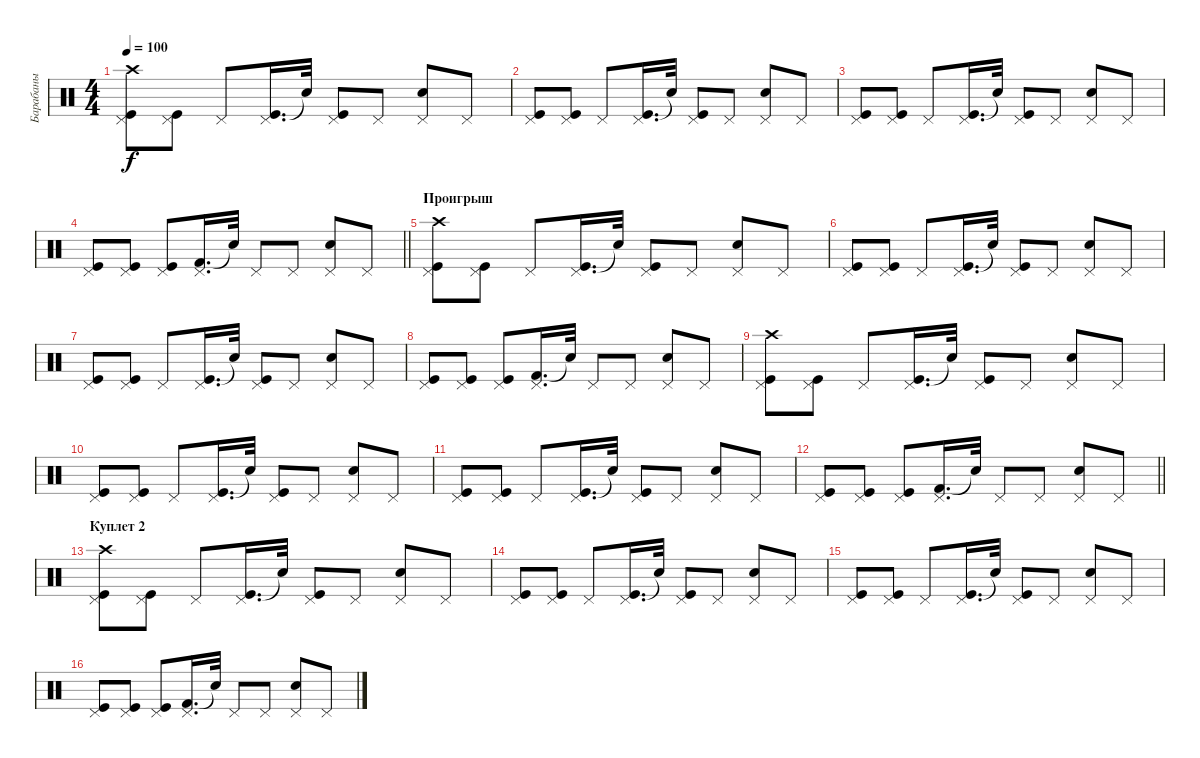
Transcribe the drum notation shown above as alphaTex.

\track ("Барабаны" "Барабаны") {instrument percussion}
\staff {score}
\articulation defaults
\ts (4 4)
\tempo 100
\clef neutral
\ks c
("Crash high (hit)" "Kick (hit)" "Pedal Hi-Hat (hit)").8{dy f} ("Kick (hit)" "Pedal Hi-Hat (hit)").8 "Pedal Hi-Hat (hit)".8 ("Kick (hit)" "Pedal Hi-Hat (hit)").16{d} "Snare (hit)"{t}.32 ("Kick (hit)" "Pedal Hi-Hat (hit)").8 "Pedal Hi-Hat (hit)".8 ("Snare (hit) 2" "Pedal Hi-Hat (hit)").8 "Pedal Hi-Hat (hit)".8 |
("Kick (hit)" "Pedal Hi-Hat (hit)").8 ("Kick (hit)" "Pedal Hi-Hat (hit)").8 "Pedal Hi-Hat (hit)".8 ("Kick (hit)" "Pedal Hi-Hat (hit)").16{d} "Snare (hit)"{t}.32 ("Kick (hit)" "Pedal Hi-Hat (hit)").8 "Pedal Hi-Hat (hit)".8 ("Snare (hit) 2" "Pedal Hi-Hat (hit)").8 "Pedal Hi-Hat (hit)".8 |
("Kick (hit)" "Pedal Hi-Hat (hit)").8 ("Kick (hit)" "Pedal Hi-Hat (hit)").8 "Pedal Hi-Hat (hit)".8 ("Kick (hit)" "Pedal Hi-Hat (hit)").16{d} "Snare (hit)"{t}.32 ("Kick (hit)" "Pedal Hi-Hat (hit)").8 "Pedal Hi-Hat (hit)".8 ("Snare (hit) 2" "Pedal Hi-Hat (hit)").8 "Pedal Hi-Hat (hit)".8 |
\barLineRight lightlight
("Kick (hit)" "Pedal Hi-Hat (hit)").8 ("Kick (hit)" "Pedal Hi-Hat (hit)").8 ("Kick (hit)" "Pedal Hi-Hat (hit)").8 ("Kick (hit) 2" "Pedal Hi-Hat (hit)").16{d} "Snare (hit)"{t}.32 "Pedal Hi-Hat (hit)".8 "Pedal Hi-Hat (hit)".8 ("Snare (hit) 2" "Pedal Hi-Hat (hit)").8 "Pedal Hi-Hat (hit)".8 |
\section ("" "Проигрыш")
("Crash high (hit)" "Kick (hit)" "Pedal Hi-Hat (hit)").8 ("Kick (hit)" "Pedal Hi-Hat (hit)").8 "Pedal Hi-Hat (hit)".8 ("Kick (hit)" "Pedal Hi-Hat (hit)").16{d} "Snare (hit)"{t}.32 ("Kick (hit)" "Pedal Hi-Hat (hit)").8 "Pedal Hi-Hat (hit)".8 ("Snare (hit) 2" "Pedal Hi-Hat (hit)").8 "Pedal Hi-Hat (hit)".8 |
("Kick (hit)" "Pedal Hi-Hat (hit)").8 ("Kick (hit)" "Pedal Hi-Hat (hit)").8 "Pedal Hi-Hat (hit)".8 ("Kick (hit)" "Pedal Hi-Hat (hit)").16{d} "Snare (hit)"{t}.32 ("Kick (hit)" "Pedal Hi-Hat (hit)").8 "Pedal Hi-Hat (hit)".8 ("Snare (hit) 2" "Pedal Hi-Hat (hit)").8 "Pedal Hi-Hat (hit)".8 |
("Kick (hit)" "Pedal Hi-Hat (hit)").8 ("Kick (hit)" "Pedal Hi-Hat (hit)").8 "Pedal Hi-Hat (hit)".8 ("Kick (hit)" "Pedal Hi-Hat (hit)").16{d} "Snare (hit)"{t}.32 ("Kick (hit)" "Pedal Hi-Hat (hit)").8 "Pedal Hi-Hat (hit)".8 ("Snare (hit) 2" "Pedal Hi-Hat (hit)").8 "Pedal Hi-Hat (hit)".8 |
("Kick (hit)" "Pedal Hi-Hat (hit)").8 ("Kick (hit)" "Pedal Hi-Hat (hit)").8 ("Kick (hit)" "Pedal Hi-Hat (hit)").8 ("Kick (hit) 2" "Pedal Hi-Hat (hit)").16{d} "Snare (hit)"{t}.32 "Pedal Hi-Hat (hit)".8 "Pedal Hi-Hat (hit)".8 ("Snare (hit) 2" "Pedal Hi-Hat (hit)").8 "Pedal Hi-Hat (hit)".8 |
("Crash high (hit)" "Kick (hit)" "Pedal Hi-Hat (hit)").8 ("Kick (hit)" "Pedal Hi-Hat (hit)").8 "Pedal Hi-Hat (hit)".8 ("Kick (hit)" "Pedal Hi-Hat (hit)").16{d} "Snare (hit)"{t}.32 ("Kick (hit)" "Pedal Hi-Hat (hit)").8 "Pedal Hi-Hat (hit)".8 ("Snare (hit) 2" "Pedal Hi-Hat (hit)").8 "Pedal Hi-Hat (hit)".8 |
("Kick (hit)" "Pedal Hi-Hat (hit)").8 ("Kick (hit)" "Pedal Hi-Hat (hit)").8 "Pedal Hi-Hat (hit)".8 ("Kick (hit)" "Pedal Hi-Hat (hit)").16{d} "Snare (hit)"{t}.32 ("Kick (hit)" "Pedal Hi-Hat (hit)").8 "Pedal Hi-Hat (hit)".8 ("Snare (hit) 2" "Pedal Hi-Hat (hit)").8 "Pedal Hi-Hat (hit)".8 |
("Kick (hit)" "Pedal Hi-Hat (hit)").8 ("Kick (hit)" "Pedal Hi-Hat (hit)").8 "Pedal Hi-Hat (hit)".8 ("Kick (hit)" "Pedal Hi-Hat (hit)").16{d} "Snare (hit)"{t}.32 ("Kick (hit)" "Pedal Hi-Hat (hit)").8 "Pedal Hi-Hat (hit)".8 ("Snare (hit) 2" "Pedal Hi-Hat (hit)").8 "Pedal Hi-Hat (hit)".8 |
\barLineRight lightlight
("Kick (hit)" "Pedal Hi-Hat (hit)").8 ("Kick (hit)" "Pedal Hi-Hat (hit)").8 ("Kick (hit)" "Pedal Hi-Hat (hit)").8 ("Kick (hit) 2" "Pedal Hi-Hat (hit)").16{d} "Snare (hit)"{t}.32 "Pedal Hi-Hat (hit)".8 "Pedal Hi-Hat (hit)".8 ("Snare (hit) 2" "Pedal Hi-Hat (hit)").8 "Pedal Hi-Hat (hit)".8 |
\section ("" "Куплет 2")
("Crash high (hit)" "Kick (hit)" "Pedal Hi-Hat (hit)").8 ("Kick (hit)" "Pedal Hi-Hat (hit)").8 "Pedal Hi-Hat (hit)".8 ("Kick (hit)" "Pedal Hi-Hat (hit)").16{d} "Snare (hit)"{t}.32 ("Kick (hit)" "Pedal Hi-Hat (hit)").8 "Pedal Hi-Hat (hit)".8 ("Snare (hit) 2" "Pedal Hi-Hat (hit)").8 "Pedal Hi-Hat (hit)".8 |
("Kick (hit)" "Pedal Hi-Hat (hit)").8 ("Kick (hit)" "Pedal Hi-Hat (hit)").8 "Pedal Hi-Hat (hit)".8 ("Kick (hit)" "Pedal Hi-Hat (hit)").16{d} "Snare (hit)"{t}.32 ("Kick (hit)" "Pedal Hi-Hat (hit)").8 "Pedal Hi-Hat (hit)".8 ("Snare (hit) 2" "Pedal Hi-Hat (hit)").8 "Pedal Hi-Hat (hit)".8 |
("Kick (hit)" "Pedal Hi-Hat (hit)").8 ("Kick (hit)" "Pedal Hi-Hat (hit)").8 "Pedal Hi-Hat (hit)".8 ("Kick (hit)" "Pedal Hi-Hat (hit)").16{d} "Snare (hit)"{t}.32 ("Kick (hit)" "Pedal Hi-Hat (hit)").8 "Pedal Hi-Hat (hit)".8 ("Snare (hit) 2" "Pedal Hi-Hat (hit)").8 "Pedal Hi-Hat (hit)".8 |
("Kick (hit)" "Pedal Hi-Hat (hit)").8 ("Kick (hit)" "Pedal Hi-Hat (hit)").8 ("Kick (hit)" "Pedal Hi-Hat (hit)").8 ("Kick (hit) 2" "Pedal Hi-Hat (hit)").16{d} "Snare (hit)"{t}.32 "Pedal Hi-Hat (hit)".8 "Pedal Hi-Hat (hit)".8 ("Snare (hit) 2" "Pedal Hi-Hat (hit)").8 "Pedal Hi-Hat (hit)".8
